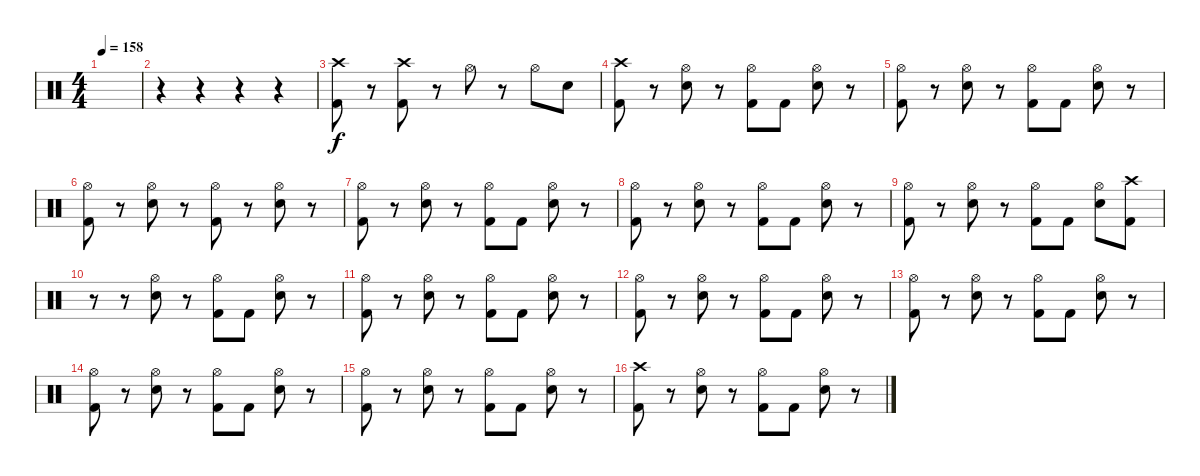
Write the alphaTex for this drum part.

\track "" {instrument percussion}
\staff {score}
\articulation defaults
\ts (4 4)
\tempo 158
\clef neutral
\ks c
|
r.4 r.4 r.4 r.4 |
("Crash high (hit)" "Kick (hit) 2").8 r.8 ("Crash high (hit)" "Kick (hit) 2").8 r.8 "Hi-Hat (open)".8 r.8 "Hi-Hat (open)".8 "Electric Snare (hit)".8 |
("Crash high (hit)" "Kick (hit) 2").8 r.8 ("Hi-Hat (open)" "Electric Snare (hit)").8 r.8 ("Hi-Hat (open)" "Kick (hit) 2").8 "Kick (hit) 2".8 ("Hi-Hat (open)" "Electric Snare (hit)").8 r.8 |
("Hi-Hat (open)" "Kick (hit) 2").8 r.8 ("Hi-Hat (open)" "Electric Snare (hit)").8 r.8 ("Hi-Hat (open)" "Kick (hit) 2").8 "Kick (hit) 2".8 ("Hi-Hat (open)" "Electric Snare (hit)").8 r.8 |
("Hi-Hat (open)" "Kick (hit) 2").8 r.8 ("Hi-Hat (open)" "Electric Snare (hit)").8 r.8 ("Hi-Hat (open)" "Kick (hit) 2").8 r.8 ("Hi-Hat (open)" "Electric Snare (hit)").8 r.8 |
("Hi-Hat (open)" "Kick (hit) 2").8 r.8 ("Hi-Hat (open)" "Electric Snare (hit)").8 r.8 ("Hi-Hat (open)" "Kick (hit) 2").8 "Kick (hit) 2".8 ("Hi-Hat (open)" "Electric Snare (hit)").8 r.8 |
("Hi-Hat (open)" "Kick (hit) 2").8 r.8 ("Hi-Hat (open)" "Electric Snare (hit)").8 r.8 ("Hi-Hat (open)" "Kick (hit) 2").8 "Kick (hit) 2".8 ("Hi-Hat (open)" "Electric Snare (hit)").8 r.8 |
("Hi-Hat (open)" "Kick (hit) 2").8 r.8 ("Hi-Hat (open)" "Electric Snare (hit)").8 r.8 ("Hi-Hat (open)" "Kick (hit) 2").8 "Kick (hit) 2".8 ("Hi-Hat (open)" "Electric Snare (hit)").8 ("Crash high (hit)" "Kick (hit) 2").8 |
r.8 r.8 ("Hi-Hat (open)" "Electric Snare (hit)").8 r.8 ("Hi-Hat (open)" "Kick (hit) 2").8 "Kick (hit) 2".8 ("Hi-Hat (open)" "Electric Snare (hit)").8 r.8 |
("Hi-Hat (open)" "Kick (hit) 2").8 r.8 ("Hi-Hat (open)" "Electric Snare (hit)").8 r.8 ("Hi-Hat (open)" "Kick (hit) 2").8 "Kick (hit) 2".8 ("Hi-Hat (open)" "Electric Snare (hit)").8 r.8 |
("Hi-Hat (open)" "Kick (hit) 2").8 r.8 ("Hi-Hat (open)" "Electric Snare (hit)").8 r.8 ("Hi-Hat (open)" "Kick (hit) 2").8 "Kick (hit) 2".8 ("Hi-Hat (open)" "Electric Snare (hit)").8 r.8 |
("Hi-Hat (open)" "Kick (hit) 2").8 r.8 ("Hi-Hat (open)" "Electric Snare (hit)").8 r.8 ("Hi-Hat (open)" "Kick (hit) 2").8 "Kick (hit) 2".8 ("Hi-Hat (open)" "Electric Snare (hit)").8 r.8 |
("Hi-Hat (open)" "Kick (hit) 2").8 r.8 ("Hi-Hat (open)" "Electric Snare (hit)").8 r.8 ("Hi-Hat (open)" "Kick (hit) 2").8 "Kick (hit) 2".8 ("Hi-Hat (open)" "Electric Snare (hit)").8 r.8 |
("Hi-Hat (open)" "Kick (hit) 2").8 r.8 ("Hi-Hat (open)" "Electric Snare (hit)").8 r.8 ("Hi-Hat (open)" "Kick (hit) 2").8 "Kick (hit) 2".8 ("Hi-Hat (open)" "Electric Snare (hit)").8 r.8 |
("Crash high (hit)" "Kick (hit) 2").8 r.8 ("Hi-Hat (open)" "Electric Snare (hit)").8 r.8 ("Hi-Hat (open)" "Kick (hit) 2").8 "Kick (hit) 2".8 ("Hi-Hat (open)" "Electric Snare (hit)").8 r.8
